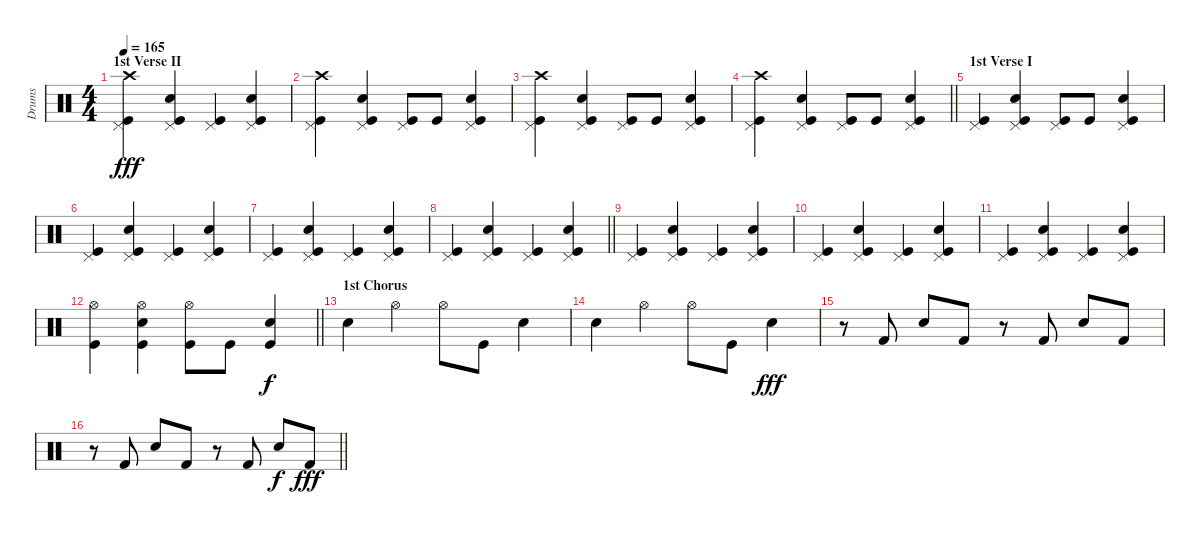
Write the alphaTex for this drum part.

\track ("Drums" "Drums") {instrument percussion}
\staff {score}
\articulation defaults
\ts (4 4)
\section ("" "1st Verse II")
\tempo 165
\clef neutral
\ks c
("Crash high (hit)" "Pedal Hi-Hat (hit)" "Kick (hit)").4{dy fff} ("Snare (hit) 2" "Pedal Hi-Hat (hit)" "Kick (hit)").4 ("Pedal Hi-Hat (hit)" "Kick (hit)").4 ("Snare (hit) 2" "Pedal Hi-Hat (hit)" "Kick (hit)").4 |
("Crash high (hit)" "Pedal Hi-Hat (hit)" "Kick (hit)").4 ("Snare (hit) 2" "Pedal Hi-Hat (hit)" "Kick (hit)").4 ("Pedal Hi-Hat (hit)" "Kick (hit)").8 "Kick (hit)".8 ("Snare (hit) 2" "Pedal Hi-Hat (hit)" "Kick (hit)").4 |
("Crash high (hit)" "Pedal Hi-Hat (hit)" "Kick (hit)").4 ("Snare (hit) 2" "Pedal Hi-Hat (hit)" "Kick (hit)").4 ("Pedal Hi-Hat (hit)" "Kick (hit)").8 "Kick (hit)".8 ("Snare (hit) 2" "Pedal Hi-Hat (hit)" "Kick (hit)").4 |
\barLineRight lightlight
("Crash high (hit)" "Pedal Hi-Hat (hit)" "Kick (hit)").4 ("Snare (hit) 2" "Pedal Hi-Hat (hit)" "Kick (hit)").4 ("Pedal Hi-Hat (hit)" "Kick (hit)").8 "Kick (hit)".8 ("Snare (hit) 2" "Pedal Hi-Hat (hit)" "Kick (hit)").4 |
\section ("" "1st Verse I")
("Pedal Hi-Hat (hit)" "Kick (hit)").4 ("Snare (hit) 2" "Pedal Hi-Hat (hit)" "Kick (hit)").4 ("Pedal Hi-Hat (hit)" "Kick (hit)").8 "Kick (hit)".8 ("Snare (hit) 2" "Pedal Hi-Hat (hit)" "Kick (hit)").4 |
("Pedal Hi-Hat (hit)" "Kick (hit)").4 ("Snare (hit) 2" "Pedal Hi-Hat (hit)" "Kick (hit)").4 ("Pedal Hi-Hat (hit)" "Kick (hit)").4 ("Snare (hit) 2" "Pedal Hi-Hat (hit)" "Kick (hit)").4 |
("Pedal Hi-Hat (hit)" "Kick (hit)").4 ("Snare (hit) 2" "Pedal Hi-Hat (hit)" "Kick (hit)").4 ("Pedal Hi-Hat (hit)" "Kick (hit)").4 ("Snare (hit) 2" "Pedal Hi-Hat (hit)" "Kick (hit)").4 |
\barLineRight lightlight
("Pedal Hi-Hat (hit)" "Kick (hit)").4 ("Snare (hit) 2" "Pedal Hi-Hat (hit)" "Kick (hit)").4 ("Pedal Hi-Hat (hit)" "Kick (hit)").4 ("Snare (hit) 2" "Pedal Hi-Hat (hit)" "Kick (hit)").4 |
("Pedal Hi-Hat (hit)" "Kick (hit)").4 ("Snare (hit) 2" "Pedal Hi-Hat (hit)" "Kick (hit)").4 ("Pedal Hi-Hat (hit)" "Kick (hit)").4 ("Snare (hit) 2" "Pedal Hi-Hat (hit)" "Kick (hit)").4 |
("Pedal Hi-Hat (hit)" "Kick (hit)").4 ("Snare (hit) 2" "Pedal Hi-Hat (hit)" "Kick (hit)").4 ("Pedal Hi-Hat (hit)" "Kick (hit)").4 ("Snare (hit) 2" "Pedal Hi-Hat (hit)" "Kick (hit)").4 |
("Pedal Hi-Hat (hit)" "Kick (hit)").4 ("Snare (hit) 2" "Pedal Hi-Hat (hit)" "Kick (hit)").4 ("Pedal Hi-Hat (hit)" "Kick (hit)").4 ("Snare (hit) 2" "Pedal Hi-Hat (hit)" "Kick (hit)").4 |
\barLineRight lightlight
("Hi-Hat (open)" "Kick (hit)").4 ("Snare (hit) 2" "Hi-Hat (open)" "Kick (hit)").4 ("Hi-Hat (open)" "Kick (hit)").8 "Kick (hit)".8 ("Electric Snare (hit)" "Kick (hit)").4{dy f} |
\section ("" "1st Chorus")
"Snare (hit) 2".4 "Hi-Hat (open)".4 "Hi-Hat (open)".8 "Kick (hit)".8 "Snare (hit) 2".4 |
"Snare (hit) 2".4 "Hi-Hat (open)".4 "Hi-Hat (open)".8 "Kick (hit)".8 "Snare (hit) 2".4{dy fff} |
r.8 "Kick (hit) 2".8 "Snare (hit) 2".8 "Kick (hit) 2".8 r.8 "Kick (hit) 2".8 "Snare (hit) 2".8 "Kick (hit) 2".8 |
\barLineRight lightlight
r.8 "Kick (hit) 2".8 "Snare (hit) 2".8 "Kick (hit) 2".8 r.8 "Kick (hit) 2".8 "Snare (hit) 2".8{dy f} "Kick (hit) 2".8{dy fff}
